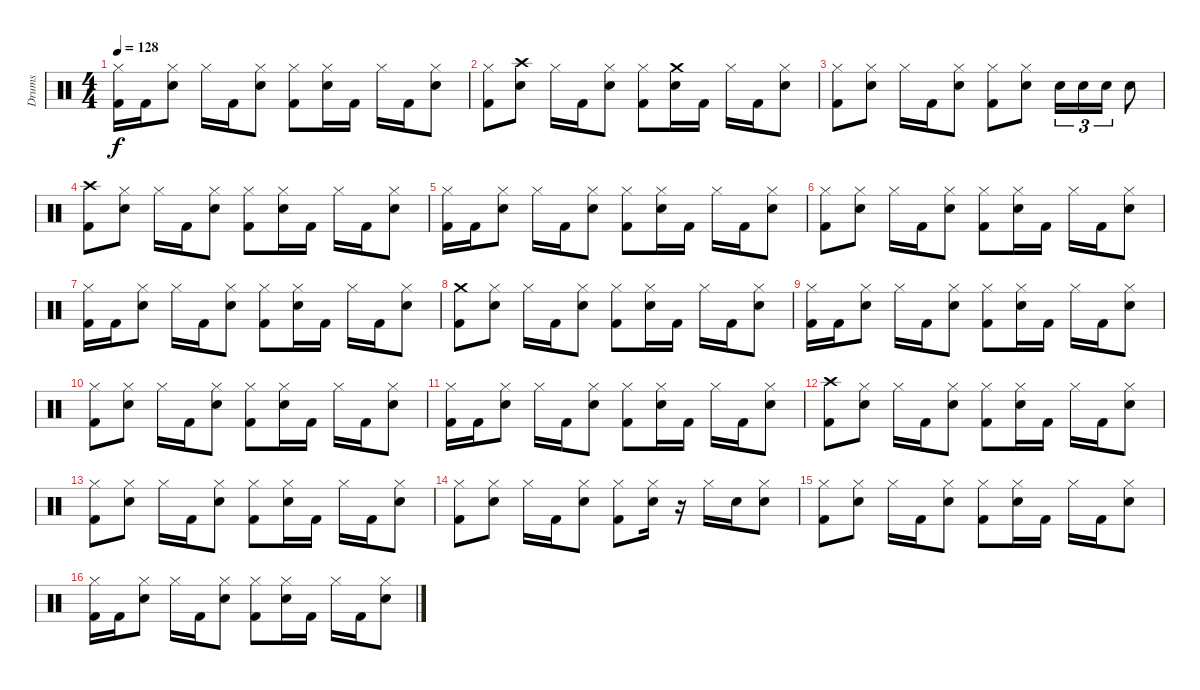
\track ("Drums" "Drums") {instrument percussion}
\staff {score}
\articulation defaults
\ts (4 4)
\tempo 128
\clef neutral
\ks c
("Kick (hit) 2" "Hi-Hat (closed)").16{dy f} "Kick (hit) 2".16 ("Snare (hit) 2" "Hi-Hat (closed)").8 "Hi-Hat (closed)".16 "Kick (hit) 2".16 ("Snare (hit) 2" "Hi-Hat (closed)").8 ("Kick (hit) 2" "Hi-Hat (closed)").8 ("Snare (hit) 2" "Hi-Hat (closed)").16 "Kick (hit) 2".16 "Hi-Hat (closed)".16 "Kick (hit) 2".16 ("Snare (hit) 2" "Hi-Hat (closed)").8 |
("Kick (hit) 2" "Hi-Hat (closed)").8 ("Snare (hit) 2" "Crash high (hit)").8 "Hi-Hat (closed)".16 "Kick (hit) 2".16 ("Snare (hit) 2" "Hi-Hat (closed)").8 ("Kick (hit) 2" "Hi-Hat (closed)").8 ("Snare (hit) 2" "Crash medium (hit)").16 "Kick (hit) 2".16 "Hi-Hat (closed)".16 "Kick (hit) 2".16 ("Snare (hit) 2" "Hi-Hat (closed)").8 |
("Kick (hit) 2" "Hi-Hat (closed)").8 ("Snare (hit) 2" "Hi-Hat (closed)").8 "Hi-Hat (closed)".16 "Kick (hit) 2".16 ("Snare (hit) 2" "Hi-Hat (closed)").8 ("Kick (hit) 2" "Hi-Hat (closed)").8 ("Snare (hit) 2" "Hi-Hat (closed)").8 "Snare (hit) 2".16{tu (3 2)} "Snare (hit) 2".16{tu (3 2)} "Snare (hit) 2".16{tu (3 2)} "Snare (hit) 2".8 |
("Kick (hit) 2" "Crash high (hit)").8 ("Snare (hit) 2" "Hi-Hat (closed)").8 "Hi-Hat (closed)".16 "Kick (hit) 2".16 ("Snare (hit) 2" "Hi-Hat (closed)").8 ("Kick (hit) 2" "Hi-Hat (closed)").8 ("Snare (hit) 2" "Hi-Hat (closed)").16 "Kick (hit) 2".16 "Hi-Hat (closed)".16 "Kick (hit) 2".16 ("Snare (hit) 2" "Hi-Hat (closed)").8 |
("Kick (hit) 2" "Hi-Hat (closed)").16 "Kick (hit) 2".16 ("Snare (hit) 2" "Hi-Hat (closed)").8 "Hi-Hat (closed)".16 "Kick (hit) 2".16 ("Snare (hit) 2" "Hi-Hat (closed)").8 ("Kick (hit) 2" "Hi-Hat (closed)").8 ("Snare (hit) 2" "Hi-Hat (closed)").16 "Kick (hit) 2".16 "Hi-Hat (closed)".16 "Kick (hit) 2".16 ("Snare (hit) 2" "Hi-Hat (closed)").8 |
("Kick (hit) 2" "Hi-Hat (closed)").8 ("Snare (hit) 2" "Hi-Hat (closed)").8 "Hi-Hat (closed)".16 "Kick (hit) 2".16 ("Snare (hit) 2" "Hi-Hat (closed)").8 ("Kick (hit) 2" "Hi-Hat (closed)").8 ("Snare (hit) 2" "Hi-Hat (closed)").16 "Kick (hit) 2".16 "Hi-Hat (closed)".16 "Kick (hit) 2".16 ("Snare (hit) 2" "Hi-Hat (closed)").8 |
("Kick (hit) 2" "Hi-Hat (closed)").16 "Kick (hit) 2".16 ("Snare (hit) 2" "Hi-Hat (closed)").8 "Hi-Hat (closed)".16 "Kick (hit) 2".16 ("Snare (hit) 2" "Hi-Hat (closed)").8 ("Kick (hit) 2" "Hi-Hat (closed)").8 ("Snare (hit) 2" "Hi-Hat (closed)").16 "Kick (hit) 2".16 "Hi-Hat (closed)".16 "Kick (hit) 2".16 ("Snare (hit) 2" "Hi-Hat (closed)").8 |
("Kick (hit) 2" "Crash medium (hit)").8 ("Snare (hit) 2" "Hi-Hat (closed)").8 "Hi-Hat (closed)".16 "Kick (hit) 2".16 ("Snare (hit) 2" "Hi-Hat (closed)").8 ("Kick (hit) 2" "Hi-Hat (closed)").8 ("Snare (hit) 2" "Hi-Hat (closed)").16 "Kick (hit) 2".16 "Hi-Hat (closed)".16 "Kick (hit) 2".16 ("Snare (hit) 2" "Hi-Hat (closed)").8 |
("Kick (hit) 2" "Hi-Hat (closed)").16 "Kick (hit) 2".16 ("Snare (hit) 2" "Hi-Hat (closed)").8 "Hi-Hat (closed)".16 "Kick (hit) 2".16 ("Snare (hit) 2" "Hi-Hat (closed)").8 ("Kick (hit) 2" "Hi-Hat (closed)").8 ("Snare (hit) 2" "Hi-Hat (closed)").16 "Kick (hit) 2".16 "Hi-Hat (closed)".16 "Kick (hit) 2".16 ("Snare (hit) 2" "Hi-Hat (closed)").8 |
("Kick (hit) 2" "Hi-Hat (closed)").8 ("Snare (hit) 2" "Hi-Hat (closed)").8 "Hi-Hat (closed)".16 "Kick (hit) 2".16 ("Snare (hit) 2" "Hi-Hat (closed)").8 ("Kick (hit) 2" "Hi-Hat (closed)").8 ("Snare (hit) 2" "Hi-Hat (closed)").16 "Kick (hit) 2".16 "Hi-Hat (closed)".16 "Kick (hit) 2".16 ("Snare (hit) 2" "Hi-Hat (closed)").8 |
("Kick (hit) 2" "Hi-Hat (closed)").16 "Kick (hit) 2".16 ("Snare (hit) 2" "Hi-Hat (closed)").8 "Hi-Hat (closed)".16 "Kick (hit) 2".16 ("Snare (hit) 2" "Hi-Hat (closed)").8 ("Kick (hit) 2" "Hi-Hat (closed)").8 ("Snare (hit) 2" "Hi-Hat (closed)").16 "Kick (hit) 2".16 "Hi-Hat (closed)".16 "Kick (hit) 2".16 ("Snare (hit) 2" "Hi-Hat (closed)").8 |
("Kick (hit) 2" "Crash high (hit)").8 ("Snare (hit) 2" "Hi-Hat (closed)").8 "Hi-Hat (closed)".16 "Kick (hit) 2".16 ("Snare (hit) 2" "Hi-Hat (closed)").8 ("Kick (hit) 2" "Hi-Hat (closed)").8 ("Snare (hit) 2" "Hi-Hat (closed)").16 "Kick (hit) 2".16 "Hi-Hat (closed)".16 "Kick (hit) 2".16 ("Snare (hit) 2" "Hi-Hat (closed)").8 |
("Kick (hit) 2" "Hi-Hat (closed)").8 ("Snare (hit) 2" "Hi-Hat (closed)").8 "Hi-Hat (closed)".16 "Kick (hit) 2".16 ("Snare (hit) 2" "Hi-Hat (closed)").8 ("Kick (hit) 2" "Hi-Hat (closed)").8 ("Snare (hit) 2" "Hi-Hat (closed)").16 "Kick (hit) 2".16 "Hi-Hat (closed)".16 "Kick (hit) 2".16 ("Snare (hit) 2" "Hi-Hat (closed)").8 |
("Kick (hit) 2" "Hi-Hat (closed)").8 ("Snare (hit) 2" "Hi-Hat (closed)").8 "Hi-Hat (closed)".16 "Kick (hit) 2".16 ("Snare (hit) 2" "Hi-Hat (closed)").8 ("Kick (hit) 2" "Hi-Hat (closed)").8 ("Snare (hit) 2" "Hi-Hat (closed)").16 r.16 "Hi-Hat (closed)".16 "Snare (hit) 2".16 ("Snare (hit) 2" "Hi-Hat (closed)").8 |
("Kick (hit) 2" "Hi-Hat (closed)").8 ("Snare (hit) 2" "Hi-Hat (closed)").8 "Hi-Hat (closed)".16 "Kick (hit) 2".16 ("Snare (hit) 2" "Hi-Hat (closed)").8 ("Kick (hit) 2" "Hi-Hat (closed)").8 ("Snare (hit) 2" "Hi-Hat (closed)").16 "Kick (hit) 2".16 "Hi-Hat (closed)".16 "Kick (hit) 2".16 ("Snare (hit) 2" "Hi-Hat (closed)").8 |
("Kick (hit) 2" "Hi-Hat (closed)").16 "Kick (hit) 2".16 ("Snare (hit) 2" "Hi-Hat (closed)").8 "Hi-Hat (closed)".16 "Kick (hit) 2".16 ("Snare (hit) 2" "Hi-Hat (closed)").8 ("Kick (hit) 2" "Hi-Hat (closed)").8 ("Snare (hit) 2" "Hi-Hat (closed)").16 "Kick (hit) 2".16 "Hi-Hat (closed)".16 "Kick (hit) 2".16 ("Snare (hit) 2" "Hi-Hat (closed)").8
